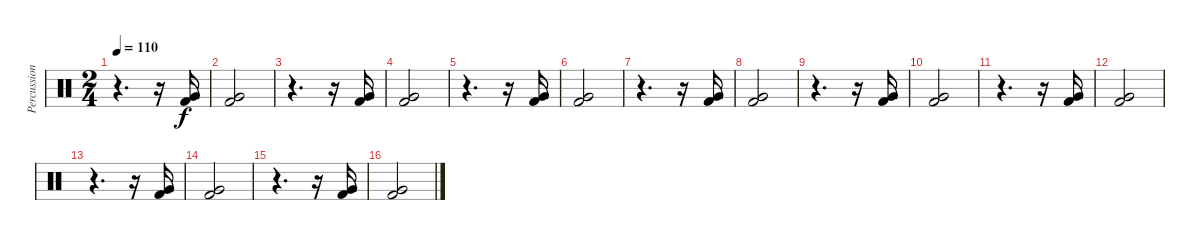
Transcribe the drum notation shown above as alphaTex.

\track ("Percussioni" "Percussion") {instrument percussion}
\staff {score}
\articulation defaults
\ts (2 4)
\tempo 110
\clef neutral
\ks c
r.4{d dy f} r.16 ("Very Low Tom (hit)" "Kick (hit) 2").16 |
("Very Low Tom (hit)" "Kick (hit) 2").2 |
r.4{d} r.16 ("Very Low Tom (hit)" "Kick (hit) 2").16 |
("Very Low Tom (hit)" "Kick (hit) 2").2 |
r.4{d} r.16 ("Very Low Tom (hit)" "Kick (hit) 2").16 |
("Very Low Tom (hit)" "Kick (hit) 2").2 |
r.4{d} r.16 ("Very Low Tom (hit)" "Kick (hit) 2").16 |
("Very Low Tom (hit)" "Kick (hit) 2").2 |
r.4{d} r.16 ("Very Low Tom (hit)" "Kick (hit) 2").16 |
("Very Low Tom (hit)" "Kick (hit) 2").2 |
r.4{d} r.16 ("Very Low Tom (hit)" "Kick (hit) 2").16 |
("Very Low Tom (hit)" "Kick (hit) 2").2 |
r.4{d} r.16 ("Very Low Tom (hit)" "Kick (hit) 2").16 |
("Very Low Tom (hit)" "Kick (hit) 2").2 |
r.4{d} r.16 ("Very Low Tom (hit)" "Kick (hit) 2").16 |
("Very Low Tom (hit)" "Kick (hit) 2").2
